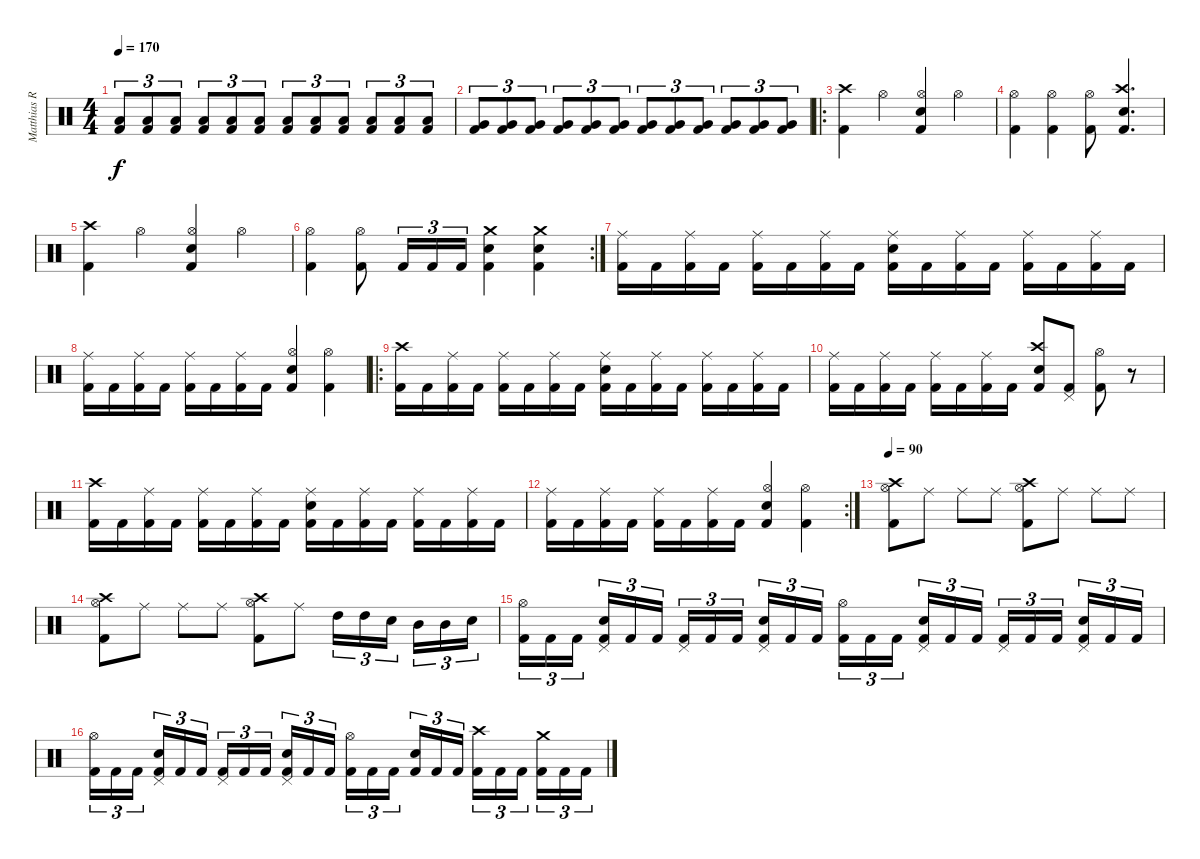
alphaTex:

\track ("Matthias R." "Matthias R") {instrument percussion}
\staff {score}
\articulation defaults
\ts (4 4)
\tempo 170
\clef neutral
\ks c
("Kick (hit) 2" "Low Tom (hit)").8{tu (3 2) dy f} ("Kick (hit) 2" "Low Tom (hit)").8{tu (3 2)} ("Kick (hit) 2" "Low Tom (hit)").8{tu (3 2)} ("Kick (hit) 2" "Low Tom (hit)").8{tu (3 2)} ("Kick (hit) 2" "Low Tom (hit)").8{tu (3 2)} ("Kick (hit) 2" "Low Tom (hit)").8{tu (3 2)} ("Kick (hit) 2" "Low Tom (hit)").8{tu (3 2)} ("Kick (hit) 2" "Low Tom (hit)").8{tu (3 2)} ("Kick (hit) 2" "Low Tom (hit)").8{tu (3 2)} ("Kick (hit) 2" "Low Tom (hit)").8{tu (3 2)} ("Kick (hit) 2" "Low Tom (hit)").8{tu (3 2)} ("Kick (hit) 2" "Low Tom (hit)").8{tu (3 2)} |
("Kick (hit) 2" "Very Low Tom (hit)").8{tu (3 2)} ("Kick (hit) 2" "Very Low Tom (hit)").8{tu (3 2)} ("Kick (hit) 2" "Very Low Tom (hit)").8{tu (3 2)} ("Kick (hit) 2" "Very Low Tom (hit)").8{tu (3 2)} ("Kick (hit) 2" "Very Low Tom (hit)").8{tu (3 2)} ("Kick (hit) 2" "Very Low Tom (hit)").8{tu (3 2)} ("Kick (hit) 2" "Very Low Tom (hit)").8{tu (3 2)} ("Kick (hit) 2" "Very Low Tom (hit)").8{tu (3 2)} ("Kick (hit) 2" "Very Low Tom (hit)").8{tu (3 2)} ("Kick (hit) 2" "Very Low Tom (hit)").8{tu (3 2)} ("Kick (hit) 2" "Very Low Tom (hit)").8{tu (3 2)} ("Kick (hit) 2" "Very Low Tom (hit)").8{tu (3 2)} |
\ro
("Kick (hit) 2" "Crash high (hit)").4 "Hi-Hat (open)".4 ("Kick (hit) 2" "Snare (hit) 2" "Hi-Hat (open)").4 "Hi-Hat (open)".4 |
("Kick (hit) 2" "Hi-Hat (open)").4 ("Kick (hit) 2" "Hi-Hat (open)").4 ("Kick (hit) 2" "Hi-Hat (open)").8 ("Kick (hit) 2" "Snare (hit) 2" "Crash high (hit)").4{d} |
("Kick (hit) 2" "Crash high (hit)").4 "Hi-Hat (open)".4 ("Kick (hit) 2" "Snare (hit) 2" "Hi-Hat (open)").4 "Hi-Hat (open)".4 |
\rc 2
("Kick (hit) 2" "Hi-Hat (open)").4 ("Kick (hit) 2" "Hi-Hat (open)").8 "Kick (hit) 2".16{tu (3 2)} "Kick (hit) 2".16{tu (3 2)} "Kick (hit) 2".16{tu (3 2)} ("Kick (hit) 2" "Snare (hit) 2" "Crash medium (hit)").4 ("Kick (hit) 2" "Snare (hit) 2" "Crash medium (hit)").4 |
("Kick (hit) 2" "Ride (middle)").16 "Kick (hit) 2".16 ("Kick (hit) 2" "Ride (middle)").16 "Kick (hit) 2".16 ("Kick (hit) 2" "Ride (middle)").16 "Kick (hit) 2".16 ("Kick (hit) 2" "Ride (middle)").16 "Kick (hit) 2".16 ("Kick (hit) 2" "Snare (hit) 2" "Ride (middle)").16 "Kick (hit) 2".16 ("Kick (hit) 2" "Ride (middle)").16 "Kick (hit) 2".16 ("Kick (hit) 2" "Ride (middle)").16 "Kick (hit) 2".16 ("Kick (hit) 2" "Ride (middle)").16 "Kick (hit) 2".16 |
("Kick (hit) 2" "Ride (middle)").16 "Kick (hit) 2".16 ("Kick (hit) 2" "Ride (middle)").16 "Kick (hit) 2".16 ("Kick (hit) 2" "Ride (middle)").16 "Kick (hit) 2".16 ("Kick (hit) 2" "Ride (middle)").16 "Kick (hit) 2".16 ("Kick (hit) 2" "Snare (hit) 2" "Hi-Hat (open)").4 ("Kick (hit) 2" "Hi-Hat (open)").4 |
\ro
("Kick (hit) 2" "Crash high (hit)").16 "Kick (hit) 2".16 ("Kick (hit) 2" "Ride (middle)").16 "Kick (hit) 2".16 ("Kick (hit) 2" "Ride (middle)").16 "Kick (hit) 2".16 ("Kick (hit) 2" "Ride (middle)").16 "Kick (hit) 2".16 ("Kick (hit) 2" "Snare (hit) 2" "Ride (middle)").16 "Kick (hit) 2".16 ("Kick (hit) 2" "Ride (middle)").16 "Kick (hit) 2".16 ("Kick (hit) 2" "Ride (middle)").16 "Kick (hit) 2".16 ("Kick (hit) 2" "Ride (middle)").16 "Kick (hit) 2".16 |
("Kick (hit) 2" "Ride (middle)").16 "Kick (hit) 2".16 ("Kick (hit) 2" "Ride (middle)").16 "Kick (hit) 2".16 ("Kick (hit) 2" "Ride (middle)").16 "Kick (hit) 2".16 ("Kick (hit) 2" "Ride (middle)").16 "Kick (hit) 2".16 ("Kick (hit) 2" "Snare (hit) 2" "Crash high (hit)").8 ("Kick (hit) 2" "Pedal Hi-Hat (hit)").8 ("Kick (hit) 2" "Hi-Hat (open)").8 r.8 |
("Kick (hit) 2" "Crash high (hit)").16 "Kick (hit) 2".16 ("Kick (hit) 2" "Ride (middle)").16 "Kick (hit) 2".16 ("Kick (hit) 2" "Ride (middle)").16 "Kick (hit) 2".16 ("Kick (hit) 2" "Ride (middle)").16 "Kick (hit) 2".16 ("Kick (hit) 2" "Snare (hit) 2" "Ride (middle)").16 "Kick (hit) 2".16 ("Kick (hit) 2" "Ride (middle)").16 "Kick (hit) 2".16 ("Kick (hit) 2" "Ride (middle)").16 "Kick (hit) 2".16 ("Kick (hit) 2" "Ride (middle)").16 "Kick (hit) 2".16 |
\rc 2
("Kick (hit) 2" "Ride (middle)").16 "Kick (hit) 2".16 ("Kick (hit) 2" "Ride (middle)").16 "Kick (hit) 2".16 ("Kick (hit) 2" "Ride (middle)").16 "Kick (hit) 2".16 ("Kick (hit) 2" "Ride (middle)").16 "Kick (hit) 2".16 ("Kick (hit) 2" "Snare (hit) 2" "Hi-Hat (open)").4 ("Kick (hit) 2" "Hi-Hat (open)").4 |
\tempo 90
("Kick (hit) 2" "Hi-Hat (open)" "Crash high (hit)").8 "Ride (middle)".8 "Ride (middle)".8 "Ride (middle)".8 ("Kick (hit) 2" "Hi-Hat (open)" "Crash high (hit)").8 "Ride (middle)".8 "Ride (middle)".8 "Ride (middle)".8 |
("Kick (hit) 2" "Hi-Hat (open)" "Crash high (hit)").8 "Ride (middle)".8 "Ride (middle)".8 "Ride (middle)".8 ("Kick (hit) 2" "Hi-Hat (open)" "Crash high (hit)").8 "Ride (middle)".8 "High Tom (hit)".16{tu (3 2)} "High Tom (hit)".16{tu (3 2)} "Electric Snare (hit)".16{tu (3 2) beam splitsecondary} "Mid Tom (hit)".16{tu (3 2)} "Mid Tom (hit)".16{tu (3 2)} "Electric Snare (hit)".16{tu (3 2)} |
("Kick (hit) 2" "Hi-Hat (open)").16{tu (3 2)} "Kick (hit) 2".16{tu (3 2)} "Kick (hit) 2".16{tu (3 2) beam splitsecondary} ("Kick (hit) 2" "Snare (hit) 2" "Pedal Hi-Hat (hit)").16{tu (3 2)} "Kick (hit) 2".16{tu (3 2)} "Kick (hit) 2".16{tu (3 2)} ("Kick (hit) 2" "Pedal Hi-Hat (hit)").16{tu (3 2)} "Kick (hit) 2".16{tu (3 2)} "Kick (hit) 2".16{tu (3 2) beam splitsecondary} ("Kick (hit) 2" "Snare (hit) 2" "Pedal Hi-Hat (hit)").16{tu (3 2)} "Kick (hit) 2".16{tu (3 2)} "Kick (hit) 2".16{tu (3 2)} ("Kick (hit) 2" "Hi-Hat (open)").16{tu (3 2)} "Kick (hit) 2".16{tu (3 2)} "Kick (hit) 2".16{tu (3 2) beam splitsecondary} ("Kick (hit) 2" "Snare (hit) 2" "Pedal Hi-Hat (hit)").16{tu (3 2)} "Kick (hit) 2".16{tu (3 2)} "Kick (hit) 2".16{tu (3 2)} ("Kick (hit) 2" "Pedal Hi-Hat (hit)").16{tu (3 2)} "Kick (hit) 2".16{tu (3 2)} "Kick (hit) 2".16{tu (3 2) beam splitsecondary} ("Kick (hit) 2" "Snare (hit) 2" "Pedal Hi-Hat (hit)").16{tu (3 2)} "Kick (hit) 2".16{tu (3 2)} "Kick (hit) 2".16{tu (3 2)} |
("Kick (hit) 2" "Hi-Hat (open)").16{tu (3 2)} "Kick (hit) 2".16{tu (3 2)} "Kick (hit) 2".16{tu (3 2) beam splitsecondary} ("Kick (hit) 2" "Snare (hit) 2" "Pedal Hi-Hat (hit)").16{tu (3 2)} "Kick (hit) 2".16{tu (3 2)} "Kick (hit) 2".16{tu (3 2)} ("Kick (hit) 2" "Pedal Hi-Hat (hit)").16{tu (3 2)} "Kick (hit) 2".16{tu (3 2)} "Kick (hit) 2".16{tu (3 2) beam splitsecondary} ("Kick (hit) 2" "Snare (hit) 2" "Pedal Hi-Hat (hit)").16{tu (3 2)} "Kick (hit) 2".16{tu (3 2)} "Kick (hit) 2".16{tu (3 2)} ("Kick (hit) 2" "Hi-Hat (open)").16{tu (3 2)} "Kick (hit) 2".16{tu (3 2)} "Kick (hit) 2".16{tu (3 2) beam splitsecondary} ("Kick (hit) 2" "Snare (hit) 2").16{tu (3 2)} "Kick (hit) 2".16{tu (3 2)} "Kick (hit) 2".16{tu (3 2)} ("Kick (hit) 2" "Crash high (hit)").16{tu (3 2)} "Kick (hit) 2".16{tu (3 2)} "Kick (hit) 2".16{tu (3 2) beam splitsecondary} ("Kick (hit) 2" "Crash medium (hit)").16{tu (3 2)} "Kick (hit) 2".16{tu (3 2)} "Kick (hit) 2".16{tu (3 2)}
